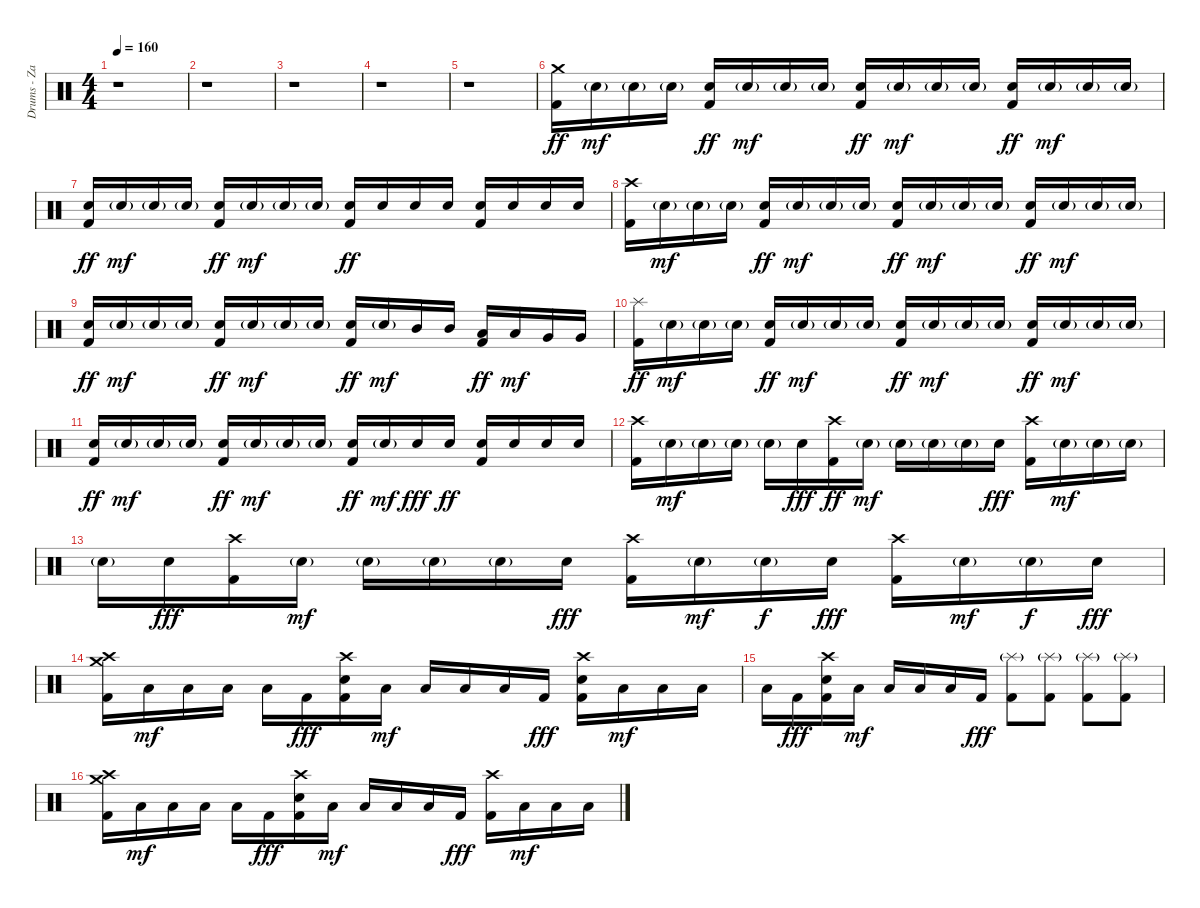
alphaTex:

\track ("Drums - Zac Farro" "Drums - Za") {instrument percussion}
\staff {score}
\articulation defaults
\ts (4 4)
\tempo 160
\clef neutral
\ks c
r.1{dy fff} |
r.1 |
r.1 |
r.1 |
r.1 |
("Crash medium (hit)" "Kick (hit) 2").16{dy ff} "Electric Snare (hit)"{g}.16{dy mf} "Electric Snare (hit)"{g}.16 "Electric Snare (hit)"{g}.16 ("Electric Snare (hit)" "Kick (hit) 2").16{dy ff} "Electric Snare (hit)"{g}.16{dy mf} "Electric Snare (hit)"{g}.16 "Electric Snare (hit)"{g}.16 ("Electric Snare (hit)" "Kick (hit) 2").16{dy ff} "Electric Snare (hit)"{g}.16{dy mf} "Electric Snare (hit)"{g}.16 "Electric Snare (hit)"{g}.16 ("Electric Snare (hit)" "Kick (hit) 2").16{dy ff} "Electric Snare (hit)"{g}.16{dy mf} "Electric Snare (hit)"{g}.16 "Electric Snare (hit)"{g}.16 |
("Electric Snare (hit)" "Kick (hit) 2").16{dy ff} "Electric Snare (hit)"{g}.16{dy mf} "Electric Snare (hit)"{g}.16 "Electric Snare (hit)"{g}.16 ("Electric Snare (hit)" "Kick (hit) 2").16{dy ff} "Electric Snare (hit)"{g}.16{dy mf} "Electric Snare (hit)"{g}.16 "Electric Snare (hit)"{g}.16 ("Electric Snare (hit)" "Kick (hit) 2").16{dy ff} "Electric Snare (hit)".16 "Electric Snare (hit)".16 "Electric Snare (hit)".16 ("Electric Snare (hit)" "Kick (hit) 2").16 "Electric Snare (hit)".16 "Electric Snare (hit)".16 "Electric Snare (hit)".16 |
("Crash high (hit)" "Kick (hit) 2").16 "Electric Snare (hit)"{g}.16{dy mf} "Electric Snare (hit)"{g}.16 "Electric Snare (hit)"{g}.16 ("Electric Snare (hit)" "Kick (hit) 2").16{dy ff} "Electric Snare (hit)"{g}.16{dy mf} "Electric Snare (hit)"{g}.16 "Electric Snare (hit)"{g}.16 ("Electric Snare (hit)" "Kick (hit) 2").16{dy ff} "Electric Snare (hit)"{g}.16{dy mf} "Electric Snare (hit)"{g}.16 "Electric Snare (hit)"{g}.16 ("Electric Snare (hit)" "Kick (hit) 2").16{dy ff} "Electric Snare (hit)"{g}.16{dy mf} "Electric Snare (hit)"{g}.16 "Electric Snare (hit)"{g}.16 |
("Electric Snare (hit)" "Kick (hit) 2").16{dy ff} "Electric Snare (hit)"{g}.16{dy mf} "Electric Snare (hit)"{g}.16 "Electric Snare (hit)"{g}.16 ("Electric Snare (hit)" "Kick (hit) 2").16{dy ff} "Electric Snare (hit)"{g}.16{dy mf} "Electric Snare (hit)"{g}.16 "Electric Snare (hit)"{g}.16 ("Electric Snare (hit)" "Kick (hit) 2").16{dy ff} "Electric Snare (hit)"{g}.16{dy mf} "Mid Tom (hit)".16 "Mid Tom (hit)".16 ("Low Tom (hit)" "Kick (hit) 2").16{dy ff} "Low Tom (hit)".16{dy mf} "Very Low Tom (hit)".16 "Very Low Tom (hit)".16 |
("Splash (hit)" "Kick (hit) 2").16{dy ff} "Electric Snare (hit)"{g}.16{dy mf} "Electric Snare (hit)"{g}.16 "Electric Snare (hit)"{g}.16 ("Electric Snare (hit)" "Kick (hit) 2").16{dy ff} "Electric Snare (hit)"{g}.16{dy mf} "Electric Snare (hit)"{g}.16 "Electric Snare (hit)"{g}.16 ("Electric Snare (hit)" "Kick (hit) 2").16{dy ff} "Electric Snare (hit)"{g}.16{dy mf} "Electric Snare (hit)"{g}.16 "Electric Snare (hit)"{g}.16 ("Electric Snare (hit)" "Kick (hit) 2").16{dy ff} "Electric Snare (hit)"{g}.16{dy mf} "Electric Snare (hit)"{g}.16 "Electric Snare (hit)"{g}.16 |
("Electric Snare (hit)" "Kick (hit) 2").16{dy ff} "Electric Snare (hit)"{g}.16{dy mf} "Electric Snare (hit)"{g}.16 "Electric Snare (hit)"{g}.16 ("Electric Snare (hit)" "Kick (hit) 2").16{dy ff} "Electric Snare (hit)"{g}.16{dy mf} "Electric Snare (hit)"{g}.16 "Electric Snare (hit)"{g}.16 ("Electric Snare (hit)" "Kick (hit) 2").16{dy ff} "Electric Snare (hit)"{g}.16{dy mf} "Electric Snare (hit)".16{dy fff} "Electric Snare (hit)".16{dy ff} ("Electric Snare (hit)" "Kick (hit) 2").16 "Electric Snare (hit)".16 "Electric Snare (hit)".16 "Electric Snare (hit)".16 |
("Crash high (hit)" "Kick (hit) 2").16 "Electric Snare (hit)"{g}.16{dy mf} "Electric Snare (hit)"{g}.16 "Electric Snare (hit)"{g}.16 "Electric Snare (hit)"{g}.16 "Electric Snare (hit)".16{dy fff} ("Crash high (hit)" "Kick (hit) 2").16{dy ff} "Electric Snare (hit)"{g}.16{dy mf} "Electric Snare (hit)"{g}.16 "Electric Snare (hit)"{g}.16 "Electric Snare (hit)"{g}.16 "Electric Snare (hit)".16{dy fff} ("Crash high (hit)" "Kick (hit) 2").16 "Electric Snare (hit)"{g}.16{dy mf} "Electric Snare (hit)"{g}.16 "Electric Snare (hit)"{g}.16 |
"Electric Snare (hit)"{g}.16 "Electric Snare (hit)".16{dy fff} ("Crash high (hit)" "Kick (hit) 2").16 "Electric Snare (hit)"{g}.16{dy mf} "Electric Snare (hit)"{g}.16 "Electric Snare (hit)"{g}.16 "Electric Snare (hit)"{g}.16 "Electric Snare (hit)".16{dy fff} ("Crash high (hit)" "Kick (hit) 2").16 "Electric Snare (hit)"{g}.16{dy mf} "Electric Snare (hit)"{g}.16{dy f} "Electric Snare (hit)".16{dy fff} ("Crash high (hit)" "Kick (hit) 2").16 "Electric Snare (hit)"{g}.16{dy mf} "Electric Snare (hit)"{g}.16{dy f} "Electric Snare (hit)".16{dy fff} |
("Crash high (hit)" "Crash medium (hit)" "Kick (hit) 2").16 "Low Tom (hit)".16{dy mf} "Low Tom (hit)".16 "Low Tom (hit)".16 "Low Tom (hit)".16 "Kick (hit) 2".16{dy fff} ("Crash high (hit)" "Electric Snare (hit)" "Kick (hit) 2").16 "Low Tom (hit)".16{dy mf} "Low Tom (hit)".16 "Low Tom (hit)".16 "Low Tom (hit)".16 "Kick (hit) 2".16{dy fff} ("Crash high (hit)" "Electric Snare (hit)" "Kick (hit) 2").16 "Low Tom (hit)".16{dy mf} "Low Tom (hit)".16 "Low Tom (hit)".16 |
"Low Tom (hit)".16 "Kick (hit) 2".16{dy fff} ("Crash high (hit)" "Electric Snare (hit)" "Kick (hit) 2").16 "Low Tom (hit)".16{dy mf} "Low Tom (hit)".16 "Low Tom (hit)".16 "Low Tom (hit)".16 "Kick (hit) 2".16{dy fff} ("Splash (hit)"{g} "Kick (hit) 2").8 ("Splash (hit)"{g} "Kick (hit) 2").8 ("Splash (hit)"{g} "Kick (hit) 2").8 ("Splash (hit)"{g} "Kick (hit) 2").8 |
("Crash high (hit)" "Crash medium (hit)" "Kick (hit) 2").16 "Low Tom (hit)".16{dy mf} "Low Tom (hit)".16 "Low Tom (hit)".16 "Low Tom (hit)".16 "Kick (hit) 2".16{dy fff} ("Crash high (hit)" "Electric Snare (hit)" "Kick (hit) 2").16 "Low Tom (hit)".16{dy mf} "Low Tom (hit)".16 "Low Tom (hit)".16 "Low Tom (hit)".16 "Kick (hit) 2".16{dy fff} ("Crash high (hit)" "Kick (hit) 2").16 "Low Tom (hit)".16{dy mf} "Low Tom (hit)".16 "Low Tom (hit)".16
